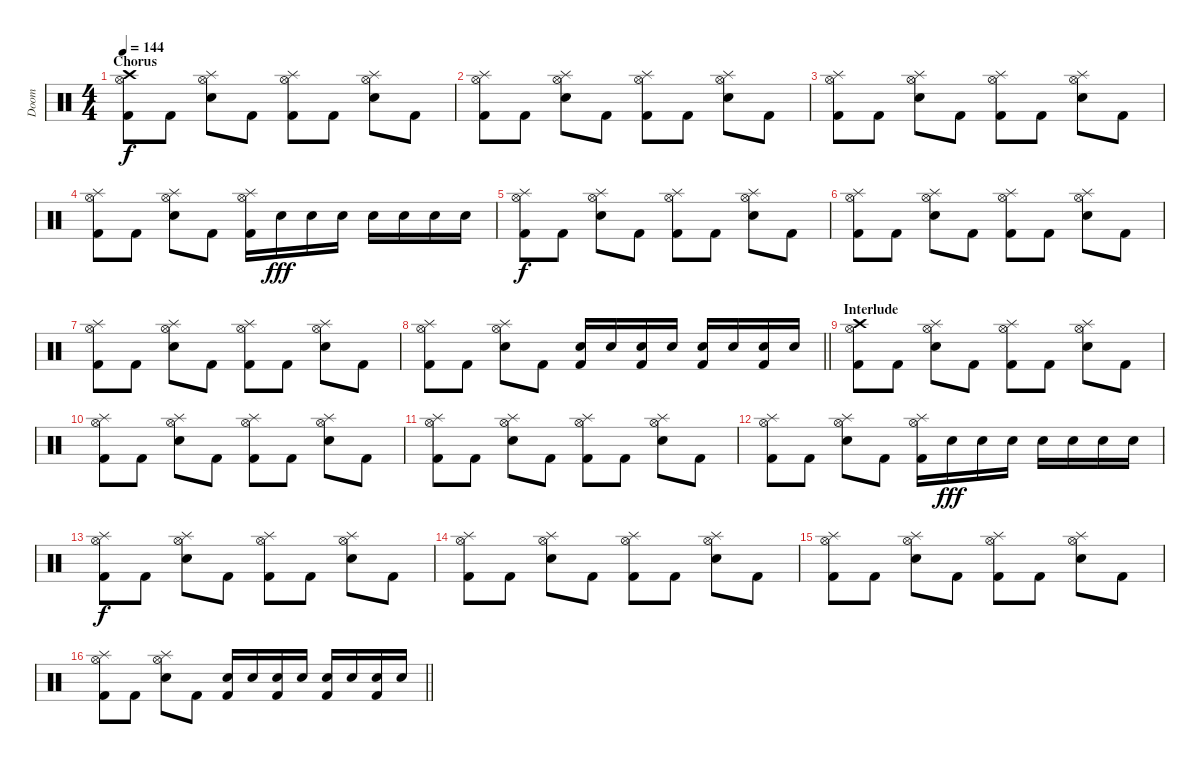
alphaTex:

\track ("Doom" "Doom") {instrument percussion}
\staff {score}
\articulation defaults
\ts (4 4)
\section ("" "Chorus")
\tempo 144
\clef neutral
\ks c
("Kick (hit) 2" "Hi-Hat (open)" "Crash high (hit)").8{dy f} "Kick (hit) 2".8 ("Snare (hit) 2" "Hi-Hat (open)" "Splash (hit)").8 "Kick (hit) 2".8 ("Kick (hit) 2" "Hi-Hat (open)" "Splash (hit)").8 "Kick (hit) 2".8 ("Snare (hit) 2" "Hi-Hat (open)" "Splash (hit)").8 "Kick (hit) 2".8 |
("Kick (hit) 2" "Hi-Hat (open)" "Splash (hit)").8 "Kick (hit) 2".8 ("Snare (hit) 2" "Hi-Hat (open)" "Splash (hit)").8 "Kick (hit) 2".8 ("Kick (hit) 2" "Hi-Hat (open)" "Splash (hit)").8 "Kick (hit) 2".8 ("Snare (hit) 2" "Hi-Hat (open)" "Splash (hit)").8 "Kick (hit) 2".8 |
("Kick (hit) 2" "Hi-Hat (open)" "Splash (hit)").8 "Kick (hit) 2".8 ("Snare (hit) 2" "Hi-Hat (open)" "Splash (hit)").8 "Kick (hit) 2".8 ("Kick (hit) 2" "Hi-Hat (open)" "Splash (hit)").8 "Kick (hit) 2".8 ("Snare (hit) 2" "Hi-Hat (open)" "Splash (hit)").8 "Kick (hit) 2".8 |
("Kick (hit) 2" "Hi-Hat (open)" "Splash (hit)").8 "Kick (hit) 2".8 ("Snare (hit) 2" "Hi-Hat (open)" "Splash (hit)").8 "Kick (hit) 2".8 ("Kick (hit) 2" "Hi-Hat (open)" "Splash (hit)").16 "Snare (hit) 2".16{dy fff} "Snare (hit) 2".16 "Snare (hit) 2".16 "Snare (hit) 2".16 "Snare (hit) 2".16 "Snare (hit) 2".16 "Snare (hit) 2".16 |
("Kick (hit) 2" "Hi-Hat (open)" "Splash (hit)").8{dy f} "Kick (hit) 2".8 ("Snare (hit) 2" "Hi-Hat (open)" "Splash (hit)").8 "Kick (hit) 2".8 ("Kick (hit) 2" "Hi-Hat (open)" "Splash (hit)").8 "Kick (hit) 2".8 ("Snare (hit) 2" "Hi-Hat (open)" "Splash (hit)").8 "Kick (hit) 2".8 |
("Kick (hit) 2" "Hi-Hat (open)" "Splash (hit)").8 "Kick (hit) 2".8 ("Snare (hit) 2" "Hi-Hat (open)" "Splash (hit)").8 "Kick (hit) 2".8 ("Kick (hit) 2" "Hi-Hat (open)" "Splash (hit)").8 "Kick (hit) 2".8 ("Snare (hit) 2" "Hi-Hat (open)" "Splash (hit)").8 "Kick (hit) 2".8 |
("Kick (hit) 2" "Hi-Hat (open)" "Splash (hit)").8 "Kick (hit) 2".8 ("Snare (hit) 2" "Hi-Hat (open)" "Splash (hit)").8 "Kick (hit) 2".8 ("Kick (hit) 2" "Hi-Hat (open)" "Splash (hit)").8 "Kick (hit) 2".8 ("Snare (hit) 2" "Hi-Hat (open)" "Splash (hit)").8 "Kick (hit) 2".8 |
\barLineRight lightlight
("Kick (hit) 2" "Hi-Hat (open)" "Splash (hit)").8 "Kick (hit) 2".8 ("Snare (hit) 2" "Hi-Hat (open)" "Splash (hit)").8 "Kick (hit) 2".8 ("Snare (hit) 2" "Kick (hit) 2").16 "Snare (hit) 2".16 ("Kick (hit) 2" "Snare (hit) 2").16 "Snare (hit) 2".16 ("Snare (hit) 2" "Kick (hit) 2").16 "Snare (hit) 2".16 ("Snare (hit) 2" "Kick (hit) 2").16 "Snare (hit) 2".16 |
\section ("" "Interlude")
("Kick (hit) 2" "Hi-Hat (open)" "Crash high (hit)").8 "Kick (hit) 2".8 ("Snare (hit) 2" "Hi-Hat (open)" "Splash (hit)").8 "Kick (hit) 2".8 ("Kick (hit) 2" "Hi-Hat (open)" "Splash (hit)").8 "Kick (hit) 2".8 ("Snare (hit) 2" "Hi-Hat (open)" "Splash (hit)").8 "Kick (hit) 2".8 |
("Kick (hit) 2" "Hi-Hat (open)" "Splash (hit)").8 "Kick (hit) 2".8 ("Snare (hit) 2" "Hi-Hat (open)" "Splash (hit)").8 "Kick (hit) 2".8 ("Kick (hit) 2" "Hi-Hat (open)" "Splash (hit)").8 "Kick (hit) 2".8 ("Snare (hit) 2" "Hi-Hat (open)" "Splash (hit)").8 "Kick (hit) 2".8 |
("Kick (hit) 2" "Hi-Hat (open)" "Splash (hit)").8 "Kick (hit) 2".8 ("Snare (hit) 2" "Hi-Hat (open)" "Splash (hit)").8 "Kick (hit) 2".8 ("Kick (hit) 2" "Hi-Hat (open)" "Splash (hit)").8 "Kick (hit) 2".8 ("Snare (hit) 2" "Hi-Hat (open)" "Splash (hit)").8 "Kick (hit) 2".8 |
("Kick (hit) 2" "Hi-Hat (open)" "Splash (hit)").8 "Kick (hit) 2".8 ("Snare (hit) 2" "Hi-Hat (open)" "Splash (hit)").8 "Kick (hit) 2".8 ("Kick (hit) 2" "Hi-Hat (open)" "Splash (hit)").16 "Snare (hit) 2".16{dy fff} "Snare (hit) 2".16 "Snare (hit) 2".16 "Snare (hit) 2".16 "Snare (hit) 2".16 "Snare (hit) 2".16 "Snare (hit) 2".16 |
("Kick (hit) 2" "Hi-Hat (open)" "Splash (hit)").8{dy f} "Kick (hit) 2".8 ("Snare (hit) 2" "Hi-Hat (open)" "Splash (hit)").8 "Kick (hit) 2".8 ("Kick (hit) 2" "Hi-Hat (open)" "Splash (hit)").8 "Kick (hit) 2".8 ("Snare (hit) 2" "Hi-Hat (open)" "Splash (hit)").8 "Kick (hit) 2".8 |
("Kick (hit) 2" "Hi-Hat (open)" "Splash (hit)").8 "Kick (hit) 2".8 ("Snare (hit) 2" "Hi-Hat (open)" "Splash (hit)").8 "Kick (hit) 2".8 ("Kick (hit) 2" "Hi-Hat (open)" "Splash (hit)").8 "Kick (hit) 2".8 ("Snare (hit) 2" "Hi-Hat (open)" "Splash (hit)").8 "Kick (hit) 2".8 |
("Kick (hit) 2" "Hi-Hat (open)" "Splash (hit)").8 "Kick (hit) 2".8 ("Snare (hit) 2" "Hi-Hat (open)" "Splash (hit)").8 "Kick (hit) 2".8 ("Kick (hit) 2" "Hi-Hat (open)" "Splash (hit)").8 "Kick (hit) 2".8 ("Snare (hit) 2" "Hi-Hat (open)" "Splash (hit)").8 "Kick (hit) 2".8 |
\barLineRight lightlight
("Kick (hit) 2" "Hi-Hat (open)" "Splash (hit)").8 "Kick (hit) 2".8 ("Snare (hit) 2" "Hi-Hat (open)" "Splash (hit)").8 "Kick (hit) 2".8 ("Snare (hit) 2" "Kick (hit) 2").16 "Snare (hit) 2".16 ("Kick (hit) 2" "Snare (hit) 2").16 "Snare (hit) 2".16 ("Snare (hit) 2" "Kick (hit) 2").16 "Snare (hit) 2".16 ("Snare (hit) 2" "Kick (hit) 2").16 "Snare (hit) 2".16
